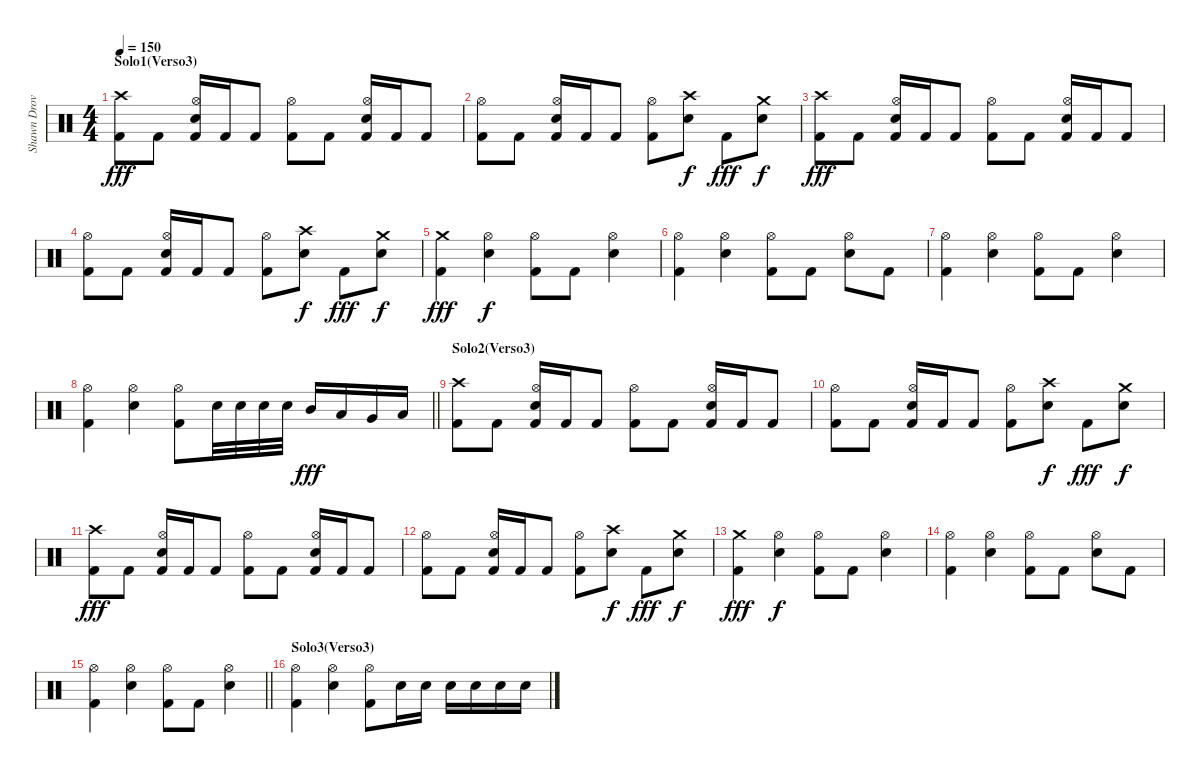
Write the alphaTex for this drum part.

\track ("Shawn Drover" "Shawn Drov") {instrument percussion}
\staff {score}
\articulation defaults
\ts (4 4)
\section ("" "Solo1(Verso3)")
\tempo 150
\clef neutral
\ks c
("Crash high (hit)" "Kick (hit) 2").8{dy fff} "Kick (hit) 2".8 ("Hi-Hat (open)" "Electric Snare (hit)" "Kick (hit) 2").16 "Kick (hit) 2".16 "Kick (hit) 2".8 ("Hi-Hat (open)" "Kick (hit) 2").8 "Kick (hit) 2".8 ("Hi-Hat (open)" "Electric Snare (hit)" "Kick (hit) 2").16 "Kick (hit) 2".16 "Kick (hit) 2".8 |
("Hi-Hat (open)" "Kick (hit) 2").8 "Kick (hit) 2".8 ("Hi-Hat (open)" "Electric Snare (hit)" "Kick (hit) 2").16 "Kick (hit) 2".16 "Kick (hit) 2".8 ("Hi-Hat (open)" "Kick (hit) 2").8 ("Crash high (hit)" "Electric Snare (hit)").8{dy f} "Kick (hit) 2".8{dy fff} ("Crash medium (hit)" "Electric Snare (hit)").8{dy f} |
("Crash high (hit)" "Kick (hit) 2").8{dy fff} "Kick (hit) 2".8 ("Hi-Hat (open)" "Electric Snare (hit)" "Kick (hit) 2").16 "Kick (hit) 2".16 "Kick (hit) 2".8 ("Hi-Hat (open)" "Kick (hit) 2").8 "Kick (hit) 2".8 ("Hi-Hat (open)" "Electric Snare (hit)" "Kick (hit) 2").16 "Kick (hit) 2".16 "Kick (hit) 2".8 |
("Hi-Hat (open)" "Kick (hit) 2").8 "Kick (hit) 2".8 ("Hi-Hat (open)" "Electric Snare (hit)" "Kick (hit) 2").16 "Kick (hit) 2".16 "Kick (hit) 2".8 ("Hi-Hat (open)" "Kick (hit) 2").8 ("Crash high (hit)" "Electric Snare (hit)").8{dy f} "Kick (hit) 2".8{dy fff} ("Crash medium (hit)" "Electric Snare (hit)").8{dy f} |
("Crash medium (hit)" "Kick (hit) 2").4{dy fff} ("Hi-Hat (open)" "Electric Snare (hit)").4{dy f} ("Hi-Hat (open)" "Kick (hit) 2").8 "Kick (hit) 2".8 ("Hi-Hat (open)" "Electric Snare (hit)").4 |
("Hi-Hat (open)" "Kick (hit) 2").4 ("Hi-Hat (open)" "Electric Snare (hit)").4 ("Hi-Hat (open)" "Kick (hit) 2").8 "Kick (hit) 2".8 ("Hi-Hat (open)" "Electric Snare (hit)").8 "Kick (hit) 2".8 |
("Hi-Hat (open)" "Kick (hit) 2").4 ("Hi-Hat (open)" "Electric Snare (hit)").4 ("Hi-Hat (open)" "Kick (hit) 2").8 "Kick (hit) 2".8 ("Hi-Hat (open)" "Electric Snare (hit)").4 |
\barLineRight lightlight
("Hi-Hat (open)" "Kick (hit) 2").4 ("Hi-Hat (open)" "Snare (hit) 2").4 ("Hi-Hat (open)" "Kick (hit) 2").8 "Electric Snare (hit)".32 "Electric Snare (hit)".32 "Electric Snare (hit)".32 "Electric Snare (hit)".32 "Mid Tom (hit)".16{dy fff} "Low Tom (hit)".16 "Very Low Tom (hit)".16 "Low Floor Tom (hit)".16 |
\section ("" "Solo2(Verso3)")
("Crash high (hit)" "Kick (hit) 2").8 "Kick (hit) 2".8 ("Hi-Hat (open)" "Electric Snare (hit)" "Kick (hit) 2").16 "Kick (hit) 2".16 "Kick (hit) 2".8 ("Hi-Hat (open)" "Kick (hit) 2").8 "Kick (hit) 2".8 ("Hi-Hat (open)" "Electric Snare (hit)" "Kick (hit) 2").16 "Kick (hit) 2".16 "Kick (hit) 2".8 |
("Hi-Hat (open)" "Kick (hit) 2").8 "Kick (hit) 2".8 ("Hi-Hat (open)" "Electric Snare (hit)" "Kick (hit) 2").16 "Kick (hit) 2".16 "Kick (hit) 2".8 ("Hi-Hat (open)" "Kick (hit) 2").8 ("Crash high (hit)" "Electric Snare (hit)").8{dy f} "Kick (hit) 2".8{dy fff} ("Crash medium (hit)" "Electric Snare (hit)").8{dy f} |
("Crash high (hit)" "Kick (hit) 2").8{dy fff} "Kick (hit) 2".8 ("Hi-Hat (open)" "Electric Snare (hit)" "Kick (hit) 2").16 "Kick (hit) 2".16 "Kick (hit) 2".8 ("Hi-Hat (open)" "Kick (hit) 2").8 "Kick (hit) 2".8 ("Hi-Hat (open)" "Electric Snare (hit)" "Kick (hit) 2").16 "Kick (hit) 2".16 "Kick (hit) 2".8 |
("Hi-Hat (open)" "Kick (hit) 2").8 "Kick (hit) 2".8 ("Hi-Hat (open)" "Electric Snare (hit)" "Kick (hit) 2").16 "Kick (hit) 2".16 "Kick (hit) 2".8 ("Hi-Hat (open)" "Kick (hit) 2").8 ("Crash high (hit)" "Electric Snare (hit)").8{dy f} "Kick (hit) 2".8{dy fff} ("Crash medium (hit)" "Electric Snare (hit)").8{dy f} |
("Crash medium (hit)" "Kick (hit) 2").4{dy fff} ("Hi-Hat (open)" "Electric Snare (hit)").4{dy f} ("Hi-Hat (open)" "Kick (hit) 2").8 "Kick (hit) 2".8 ("Hi-Hat (open)" "Electric Snare (hit)").4 |
("Hi-Hat (open)" "Kick (hit) 2").4 ("Hi-Hat (open)" "Electric Snare (hit)").4 ("Hi-Hat (open)" "Kick (hit) 2").8 "Kick (hit) 2".8 ("Hi-Hat (open)" "Electric Snare (hit)").8 "Kick (hit) 2".8 |
\barLineRight lightlight
("Hi-Hat (open)" "Kick (hit) 2").4 ("Hi-Hat (open)" "Electric Snare (hit)").4 ("Hi-Hat (open)" "Kick (hit) 2").8 "Kick (hit) 2".8 ("Hi-Hat (open)" "Electric Snare (hit)").4 |
\section ("" "Solo3(Verso3)")
("Hi-Hat (open)" "Kick (hit) 2").4 ("Hi-Hat (open)" "Electric Snare (hit)").4 ("Hi-Hat (open)" "Kick (hit) 2").8 "Electric Snare (hit)".16 "Electric Snare (hit)".16 "Electric Snare (hit)".16 "Electric Snare (hit)".16 "Electric Snare (hit)".16 "Electric Snare (hit)".16
